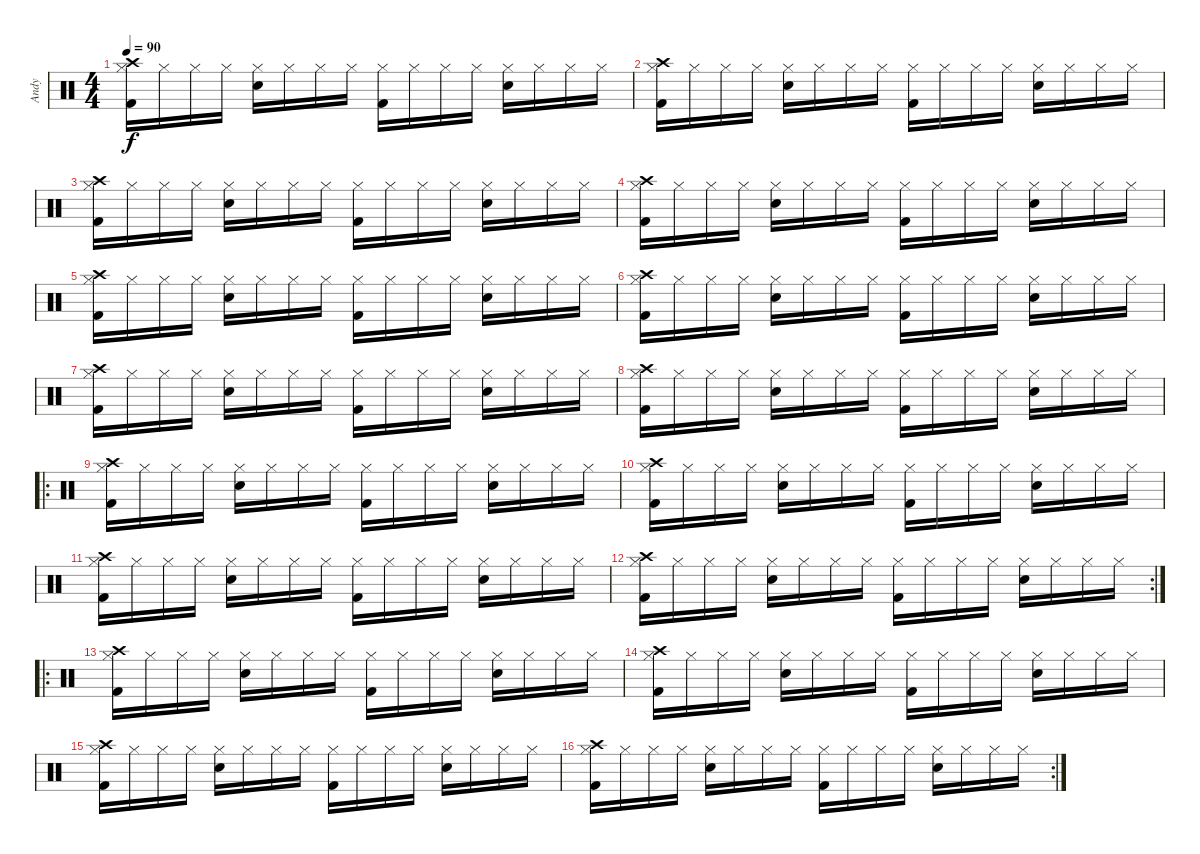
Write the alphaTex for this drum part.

\track ("Andy" "Andy") {instrument percussion}
\staff {score}
\articulation defaults
\ts (4 4)
\tempo 90
\clef neutral
\ks c
("Crash high (hit)" "Hi-Hat (closed)" "Kick (hit) 2").16{dy f} "Hi-Hat (closed)".16 "Hi-Hat (closed)".16 "Hi-Hat (closed)".16 ("Hi-Hat (closed)" "Snare (hit) 2").16 "Hi-Hat (closed)".16 "Hi-Hat (closed)".16 "Hi-Hat (closed)".16 ("Hi-Hat (closed)" "Kick (hit) 2").16 "Hi-Hat (closed)".16 "Hi-Hat (closed)".16 "Hi-Hat (closed)".16 ("Hi-Hat (closed)" "Snare (hit) 2").16 "Hi-Hat (closed)".16 "Hi-Hat (closed)".16 "Hi-Hat (closed)".16 |
("Crash high (hit)" "Hi-Hat (closed)" "Kick (hit) 2").16 "Hi-Hat (closed)".16 "Hi-Hat (closed)".16 "Hi-Hat (closed)".16 ("Hi-Hat (closed)" "Snare (hit) 2").16 "Hi-Hat (closed)".16 "Hi-Hat (closed)".16 "Hi-Hat (closed)".16 ("Hi-Hat (closed)" "Kick (hit) 2").16 "Hi-Hat (closed)".16 "Hi-Hat (closed)".16 "Hi-Hat (closed)".16 ("Hi-Hat (closed)" "Snare (hit) 2").16 "Hi-Hat (closed)".16 "Hi-Hat (closed)".16 "Hi-Hat (closed)".16 |
("Crash high (hit)" "Hi-Hat (closed)" "Kick (hit) 2").16 "Hi-Hat (closed)".16 "Hi-Hat (closed)".16 "Hi-Hat (closed)".16 ("Hi-Hat (closed)" "Snare (hit) 2").16 "Hi-Hat (closed)".16 "Hi-Hat (closed)".16 "Hi-Hat (closed)".16 ("Hi-Hat (closed)" "Kick (hit) 2").16 "Hi-Hat (closed)".16 "Hi-Hat (closed)".16 "Hi-Hat (closed)".16 ("Hi-Hat (closed)" "Snare (hit) 2").16 "Hi-Hat (closed)".16 "Hi-Hat (closed)".16 "Hi-Hat (closed)".16 |
("Crash high (hit)" "Hi-Hat (closed)" "Kick (hit) 2").16 "Hi-Hat (closed)".16 "Hi-Hat (closed)".16 "Hi-Hat (closed)".16 ("Hi-Hat (closed)" "Snare (hit) 2").16 "Hi-Hat (closed)".16 "Hi-Hat (closed)".16 "Hi-Hat (closed)".16 ("Hi-Hat (closed)" "Kick (hit) 2").16 "Hi-Hat (closed)".16 "Hi-Hat (closed)".16 "Hi-Hat (closed)".16 ("Hi-Hat (closed)" "Snare (hit) 2").16 "Hi-Hat (closed)".16 "Hi-Hat (closed)".16 "Hi-Hat (closed)".16 |
("Crash high (hit)" "Hi-Hat (closed)" "Kick (hit) 2").16 "Hi-Hat (closed)".16 "Hi-Hat (closed)".16 "Hi-Hat (closed)".16 ("Hi-Hat (closed)" "Snare (hit) 2").16 "Hi-Hat (closed)".16 "Hi-Hat (closed)".16 "Hi-Hat (closed)".16 ("Hi-Hat (closed)" "Kick (hit) 2").16 "Hi-Hat (closed)".16 "Hi-Hat (closed)".16 "Hi-Hat (closed)".16 ("Hi-Hat (closed)" "Snare (hit) 2").16 "Hi-Hat (closed)".16 "Hi-Hat (closed)".16 "Hi-Hat (closed)".16 |
("Crash high (hit)" "Hi-Hat (closed)" "Kick (hit) 2").16 "Hi-Hat (closed)".16 "Hi-Hat (closed)".16 "Hi-Hat (closed)".16 ("Hi-Hat (closed)" "Snare (hit) 2").16 "Hi-Hat (closed)".16 "Hi-Hat (closed)".16 "Hi-Hat (closed)".16 ("Hi-Hat (closed)" "Kick (hit) 2").16 "Hi-Hat (closed)".16 "Hi-Hat (closed)".16 "Hi-Hat (closed)".16 ("Hi-Hat (closed)" "Snare (hit) 2").16 "Hi-Hat (closed)".16 "Hi-Hat (closed)".16 "Hi-Hat (closed)".16 |
("Crash high (hit)" "Hi-Hat (closed)" "Kick (hit) 2").16 "Hi-Hat (closed)".16 "Hi-Hat (closed)".16 "Hi-Hat (closed)".16 ("Hi-Hat (closed)" "Snare (hit) 2").16 "Hi-Hat (closed)".16 "Hi-Hat (closed)".16 "Hi-Hat (closed)".16 ("Hi-Hat (closed)" "Kick (hit) 2").16 "Hi-Hat (closed)".16 "Hi-Hat (closed)".16 "Hi-Hat (closed)".16 ("Hi-Hat (closed)" "Snare (hit) 2").16 "Hi-Hat (closed)".16 "Hi-Hat (closed)".16 "Hi-Hat (closed)".16 |
("Crash high (hit)" "Hi-Hat (closed)" "Kick (hit) 2").16 "Hi-Hat (closed)".16 "Hi-Hat (closed)".16 "Hi-Hat (closed)".16 ("Hi-Hat (closed)" "Snare (hit) 2").16 "Hi-Hat (closed)".16 "Hi-Hat (closed)".16 "Hi-Hat (closed)".16 ("Hi-Hat (closed)" "Kick (hit) 2").16 "Hi-Hat (closed)".16 "Hi-Hat (closed)".16 "Hi-Hat (closed)".16 ("Hi-Hat (closed)" "Snare (hit) 2").16 "Hi-Hat (closed)".16 "Hi-Hat (closed)".16 "Hi-Hat (closed)".16 |
\ro
("Crash high (hit)" "Hi-Hat (closed)" "Kick (hit) 2").16 "Hi-Hat (closed)".16 "Hi-Hat (closed)".16 "Hi-Hat (closed)".16 ("Hi-Hat (closed)" "Snare (hit) 2").16 "Hi-Hat (closed)".16 "Hi-Hat (closed)".16 "Hi-Hat (closed)".16 ("Hi-Hat (closed)" "Kick (hit) 2").16 "Hi-Hat (closed)".16 "Hi-Hat (closed)".16 "Hi-Hat (closed)".16 ("Hi-Hat (closed)" "Snare (hit) 2").16 "Hi-Hat (closed)".16 "Hi-Hat (closed)".16 "Hi-Hat (closed)".16 |
("Crash high (hit)" "Hi-Hat (closed)" "Kick (hit) 2").16 "Hi-Hat (closed)".16 "Hi-Hat (closed)".16 "Hi-Hat (closed)".16 ("Hi-Hat (closed)" "Snare (hit) 2").16 "Hi-Hat (closed)".16 "Hi-Hat (closed)".16 "Hi-Hat (closed)".16 ("Hi-Hat (closed)" "Kick (hit) 2").16 "Hi-Hat (closed)".16 "Hi-Hat (closed)".16 "Hi-Hat (closed)".16 ("Hi-Hat (closed)" "Snare (hit) 2").16 "Hi-Hat (closed)".16 "Hi-Hat (closed)".16 "Hi-Hat (closed)".16 |
("Crash high (hit)" "Hi-Hat (closed)" "Kick (hit) 2").16 "Hi-Hat (closed)".16 "Hi-Hat (closed)".16 "Hi-Hat (closed)".16 ("Hi-Hat (closed)" "Snare (hit) 2").16 "Hi-Hat (closed)".16 "Hi-Hat (closed)".16 "Hi-Hat (closed)".16 ("Hi-Hat (closed)" "Kick (hit) 2").16 "Hi-Hat (closed)".16 "Hi-Hat (closed)".16 "Hi-Hat (closed)".16 ("Hi-Hat (closed)" "Snare (hit) 2").16 "Hi-Hat (closed)".16 "Hi-Hat (closed)".16 "Hi-Hat (closed)".16 |
\rc 2
("Crash high (hit)" "Hi-Hat (closed)" "Kick (hit) 2").16 "Hi-Hat (closed)".16 "Hi-Hat (closed)".16 "Hi-Hat (closed)".16 ("Hi-Hat (closed)" "Snare (hit) 2").16 "Hi-Hat (closed)".16 "Hi-Hat (closed)".16 "Hi-Hat (closed)".16 ("Hi-Hat (closed)" "Kick (hit) 2").16 "Hi-Hat (closed)".16 "Hi-Hat (closed)".16 "Hi-Hat (closed)".16 ("Hi-Hat (closed)" "Snare (hit) 2").16 "Hi-Hat (closed)".16 "Hi-Hat (closed)".16 "Hi-Hat (closed)".16 |
\ro
("Crash high (hit)" "Hi-Hat (closed)" "Kick (hit) 2").16 "Hi-Hat (closed)".16 "Hi-Hat (closed)".16 "Hi-Hat (closed)".16 ("Hi-Hat (closed)" "Snare (hit) 2").16 "Hi-Hat (closed)".16 "Hi-Hat (closed)".16 "Hi-Hat (closed)".16 ("Hi-Hat (closed)" "Kick (hit) 2").16 "Hi-Hat (closed)".16 "Hi-Hat (closed)".16 "Hi-Hat (closed)".16 ("Hi-Hat (closed)" "Snare (hit) 2").16 "Hi-Hat (closed)".16 "Hi-Hat (closed)".16 "Hi-Hat (closed)".16 |
("Crash high (hit)" "Hi-Hat (closed)" "Kick (hit) 2").16 "Hi-Hat (closed)".16 "Hi-Hat (closed)".16 "Hi-Hat (closed)".16 ("Hi-Hat (closed)" "Snare (hit) 2").16 "Hi-Hat (closed)".16 "Hi-Hat (closed)".16 "Hi-Hat (closed)".16 ("Hi-Hat (closed)" "Kick (hit) 2").16 "Hi-Hat (closed)".16 "Hi-Hat (closed)".16 "Hi-Hat (closed)".16 ("Hi-Hat (closed)" "Snare (hit) 2").16 "Hi-Hat (closed)".16 "Hi-Hat (closed)".16 "Hi-Hat (closed)".16 |
("Crash high (hit)" "Hi-Hat (closed)" "Kick (hit) 2").16 "Hi-Hat (closed)".16 "Hi-Hat (closed)".16 "Hi-Hat (closed)".16 ("Hi-Hat (closed)" "Snare (hit) 2").16 "Hi-Hat (closed)".16 "Hi-Hat (closed)".16 "Hi-Hat (closed)".16 ("Hi-Hat (closed)" "Kick (hit) 2").16 "Hi-Hat (closed)".16 "Hi-Hat (closed)".16 "Hi-Hat (closed)".16 ("Hi-Hat (closed)" "Snare (hit) 2").16 "Hi-Hat (closed)".16 "Hi-Hat (closed)".16 "Hi-Hat (closed)".16 |
\rc 2
("Crash high (hit)" "Hi-Hat (closed)" "Kick (hit) 2").16 "Hi-Hat (closed)".16 "Hi-Hat (closed)".16 "Hi-Hat (closed)".16 ("Hi-Hat (closed)" "Snare (hit) 2").16 "Hi-Hat (closed)".16 "Hi-Hat (closed)".16 "Hi-Hat (closed)".16 ("Hi-Hat (closed)" "Kick (hit) 2").16 "Hi-Hat (closed)".16 "Hi-Hat (closed)".16 "Hi-Hat (closed)".16 ("Hi-Hat (closed)" "Snare (hit) 2").16 "Hi-Hat (closed)".16 "Hi-Hat (closed)".16 "Hi-Hat (closed)".16
